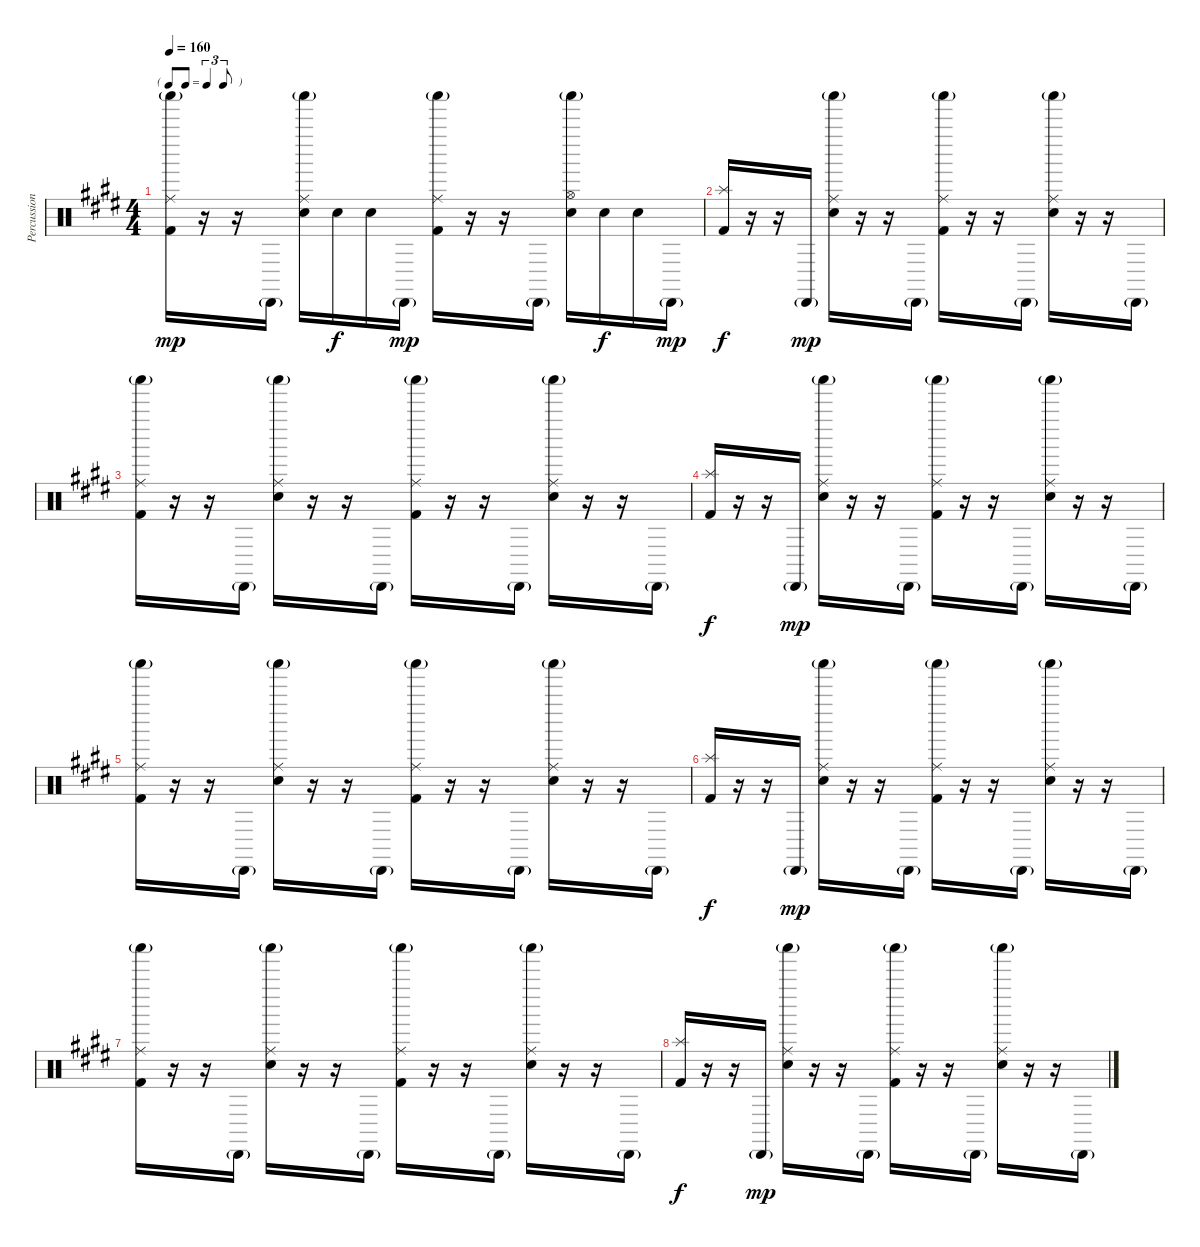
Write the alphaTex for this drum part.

\track ("Percussion" "Percussion") {instrument percussion}
\staff {score}
\articulation defaults
\ts (4 4)
\tf triplet8th
\tempo 160
\clef neutral
\ks e
("Shaker (hit)"{g} "Ride (middle)" "Kick (hit) 2").16{dy mp} r.16 r.16 "Cabasa (hit)"{g}.16 ("Shaker (hit)"{g} "Ride (middle)" "Snare (hit) 2").16 "Snare (hit) 2".16{dy f} "Snare (hit) 2".16 "Cabasa (hit)"{g}.16{dy mp} ("Shaker (hit)"{g} "Ride (middle)" "Kick (hit) 2").16 r.16 r.16 "Cabasa (hit)"{g}.16 ("Shaker (hit)"{g} "Hi-Hat (open)" "Electric Snare (hit)").16 "Electric Snare (hit)".16{dy f} "Electric Snare (hit)".16 "Cabasa (hit)"{g}.16{dy mp} |
("Splash (hit)" "Kick (hit) 2").16{dy f} r.16 r.16 "Cabasa (hit)"{g}.16{dy mp} ("Shaker (hit)"{g} "Ride (middle)" "Electric Snare (hit)").16 r.16 r.16 "Cabasa (hit)"{g}.16 ("Shaker (hit)"{g} "Ride (middle)" "Kick (hit) 2").16 r.16 r.16 "Cabasa (hit)"{g}.16 ("Shaker (hit)"{g} "Ride (middle)" "Electric Snare (hit)").16 r.16 r.16 "Cabasa (hit)"{g}.16 |
("Shaker (hit)"{g} "Ride (middle)" "Kick (hit) 2").16 r.16 r.16 "Cabasa (hit)"{g}.16 ("Shaker (hit)"{g} "Ride (middle)" "Electric Snare (hit)").16 r.16 r.16 "Cabasa (hit)"{g}.16 ("Shaker (hit)"{g} "Ride (middle)" "Kick (hit) 2").16 r.16 r.16 "Cabasa (hit)"{g}.16 ("Shaker (hit)"{g} "Ride (middle)" "Electric Snare (hit)").16 r.16 r.16 "Cabasa (hit)"{g}.16 |
("Splash (hit)" "Kick (hit) 2").16{dy f} r.16 r.16 "Cabasa (hit)"{g}.16{dy mp} ("Shaker (hit)"{g} "Ride (middle)" "Electric Snare (hit)").16 r.16 r.16 "Cabasa (hit)"{g}.16 ("Shaker (hit)"{g} "Ride (middle)" "Kick (hit) 2").16 r.16 r.16 "Cabasa (hit)"{g}.16 ("Shaker (hit)"{g} "Ride (middle)" "Electric Snare (hit)").16 r.16 r.16 "Cabasa (hit)"{g}.16 |
("Shaker (hit)"{g} "Ride (middle)" "Kick (hit) 2").16 r.16 r.16 "Cabasa (hit)"{g}.16 ("Shaker (hit)"{g} "Ride (middle)" "Electric Snare (hit)").16 r.16 r.16 "Cabasa (hit)"{g}.16 ("Shaker (hit)"{g} "Ride (middle)" "Kick (hit) 2").16 r.16 r.16 "Cabasa (hit)"{g}.16 ("Shaker (hit)"{g} "Ride (middle)" "Electric Snare (hit)").16 r.16 r.16 "Cabasa (hit)"{g}.16 |
("Splash (hit)" "Kick (hit) 2").16{dy f} r.16 r.16 "Cabasa (hit)"{g}.16{dy mp} ("Shaker (hit)"{g} "Ride (middle)" "Electric Snare (hit)").16 r.16 r.16 "Cabasa (hit)"{g}.16 ("Shaker (hit)"{g} "Ride (middle)" "Kick (hit) 2").16 r.16 r.16 "Cabasa (hit)"{g}.16 ("Shaker (hit)"{g} "Ride (middle)" "Electric Snare (hit)").16 r.16 r.16 "Cabasa (hit)"{g}.16 |
("Shaker (hit)"{g} "Ride (middle)" "Kick (hit) 2").16 r.16 r.16 "Cabasa (hit)"{g}.16 ("Shaker (hit)"{g} "Ride (middle)" "Electric Snare (hit)").16 r.16 r.16 "Cabasa (hit)"{g}.16 ("Shaker (hit)"{g} "Ride (middle)" "Kick (hit) 2").16 r.16 r.16 "Cabasa (hit)"{g}.16 ("Shaker (hit)"{g} "Ride (middle)" "Electric Snare (hit)").16 r.16 r.16 "Cabasa (hit)"{g}.16 |
("Splash (hit)" "Kick (hit) 2").16{dy f} r.16 r.16 "Cabasa (hit)"{g}.16{dy mp} ("Shaker (hit)"{g} "Ride (middle)" "Electric Snare (hit)").16 r.16 r.16 "Cabasa (hit)"{g}.16 ("Shaker (hit)"{g} "Ride (middle)" "Kick (hit) 2").16 r.16 r.16 "Cabasa (hit)"{g}.16 ("Shaker (hit)"{g} "Ride (middle)" "Electric Snare (hit)").16 r.16 r.16 "Cabasa (hit)"{g}.16
